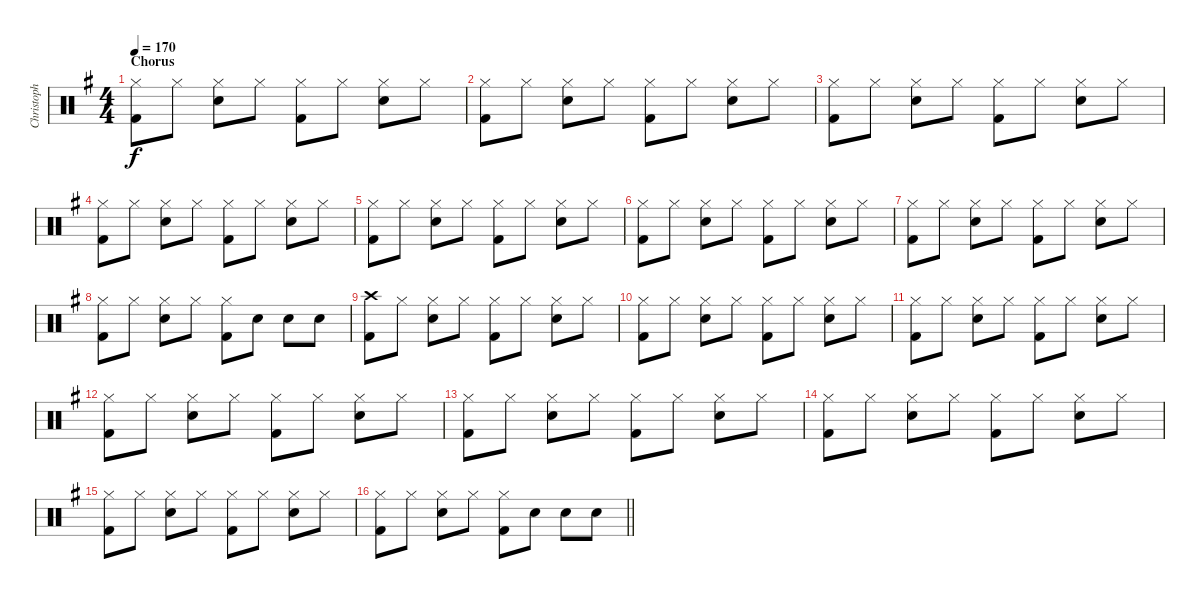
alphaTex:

\track ("Christoph Doom Schneider - Drums" "Christoph ") {instrument percussion}
\staff {score}
\articulation defaults
\ts (4 4)
\section ("" "Chorus")
\tempo 170
\clef neutral
\ks g
("Hi-Hat (closed)" "Kick (hit) 2").8{dy f} "Hi-Hat (closed)".8 ("Hi-Hat (closed)" "Electric Snare (hit)").8 "Hi-Hat (closed)".8 ("Hi-Hat (closed)" "Kick (hit) 2").8 "Hi-Hat (closed)".8 ("Hi-Hat (closed)" "Electric Snare (hit)").8 "Hi-Hat (closed)".8 |
("Hi-Hat (closed)" "Kick (hit) 2").8 "Hi-Hat (closed)".8 ("Hi-Hat (closed)" "Electric Snare (hit)").8 "Hi-Hat (closed)".8 ("Hi-Hat (closed)" "Kick (hit) 2").8 "Hi-Hat (closed)".8 ("Hi-Hat (closed)" "Electric Snare (hit)").8 "Hi-Hat (closed)".8 |
("Hi-Hat (closed)" "Kick (hit) 2").8 "Hi-Hat (closed)".8 ("Hi-Hat (closed)" "Electric Snare (hit)").8 "Hi-Hat (closed)".8 ("Hi-Hat (closed)" "Kick (hit) 2").8 "Hi-Hat (closed)".8 ("Hi-Hat (closed)" "Electric Snare (hit)").8 "Hi-Hat (closed)".8 |
("Hi-Hat (closed)" "Kick (hit) 2").8 "Hi-Hat (closed)".8 ("Hi-Hat (closed)" "Electric Snare (hit)").8 "Hi-Hat (closed)".8 ("Hi-Hat (closed)" "Kick (hit) 2").8 "Hi-Hat (closed)".8 ("Hi-Hat (closed)" "Electric Snare (hit)").8 "Hi-Hat (closed)".8 |
("Hi-Hat (closed)" "Kick (hit) 2").8 "Hi-Hat (closed)".8 ("Hi-Hat (closed)" "Electric Snare (hit)").8 "Hi-Hat (closed)".8 ("Hi-Hat (closed)" "Kick (hit) 2").8 "Hi-Hat (closed)".8 ("Hi-Hat (closed)" "Electric Snare (hit)").8 "Hi-Hat (closed)".8 |
("Hi-Hat (closed)" "Kick (hit) 2").8 "Hi-Hat (closed)".8 ("Hi-Hat (closed)" "Electric Snare (hit)").8 "Hi-Hat (closed)".8 ("Hi-Hat (closed)" "Kick (hit) 2").8 "Hi-Hat (closed)".8 ("Hi-Hat (closed)" "Electric Snare (hit)").8 "Hi-Hat (closed)".8 |
("Hi-Hat (closed)" "Kick (hit) 2").8 "Hi-Hat (closed)".8 ("Hi-Hat (closed)" "Electric Snare (hit)").8 "Hi-Hat (closed)".8 ("Hi-Hat (closed)" "Kick (hit) 2").8 "Hi-Hat (closed)".8 ("Hi-Hat (closed)" "Electric Snare (hit)").8 "Hi-Hat (closed)".8 |
("Hi-Hat (closed)" "Kick (hit) 2").8 "Hi-Hat (closed)".8 ("Hi-Hat (closed)" "Electric Snare (hit)").8 "Hi-Hat (closed)".8 ("Hi-Hat (closed)" "Kick (hit) 2").8 "Electric Snare (hit)".8 "Electric Snare (hit)".8 "Electric Snare (hit)".8 |
("Crash high (hit)" "Kick (hit) 2").8 "Hi-Hat (closed)".8 ("Hi-Hat (closed)" "Electric Snare (hit)").8 "Hi-Hat (closed)".8 ("Hi-Hat (closed)" "Kick (hit) 2").8 "Hi-Hat (closed)".8 ("Hi-Hat (closed)" "Electric Snare (hit)").8 "Hi-Hat (closed)".8 |
("Hi-Hat (closed)" "Kick (hit) 2").8 "Hi-Hat (closed)".8 ("Hi-Hat (closed)" "Electric Snare (hit)").8 "Hi-Hat (closed)".8 ("Hi-Hat (closed)" "Kick (hit) 2").8 "Hi-Hat (closed)".8 ("Hi-Hat (closed)" "Electric Snare (hit)").8 "Hi-Hat (closed)".8 |
("Hi-Hat (closed)" "Kick (hit) 2").8 "Hi-Hat (closed)".8 ("Hi-Hat (closed)" "Electric Snare (hit)").8 "Hi-Hat (closed)".8 ("Hi-Hat (closed)" "Kick (hit) 2").8 "Hi-Hat (closed)".8 ("Hi-Hat (closed)" "Electric Snare (hit)").8 "Hi-Hat (closed)".8 |
("Hi-Hat (closed)" "Kick (hit) 2").8 "Hi-Hat (closed)".8 ("Hi-Hat (closed)" "Electric Snare (hit)").8 "Hi-Hat (closed)".8 ("Hi-Hat (closed)" "Kick (hit) 2").8 "Hi-Hat (closed)".8 ("Hi-Hat (closed)" "Electric Snare (hit)").8 "Hi-Hat (closed)".8 |
("Hi-Hat (closed)" "Kick (hit) 2").8 "Hi-Hat (closed)".8 ("Hi-Hat (closed)" "Electric Snare (hit)").8 "Hi-Hat (closed)".8 ("Hi-Hat (closed)" "Kick (hit) 2").8 "Hi-Hat (closed)".8 ("Hi-Hat (closed)" "Electric Snare (hit)").8 "Hi-Hat (closed)".8 |
("Hi-Hat (closed)" "Kick (hit) 2").8 "Hi-Hat (closed)".8 ("Hi-Hat (closed)" "Electric Snare (hit)").8 "Hi-Hat (closed)".8 ("Hi-Hat (closed)" "Kick (hit) 2").8 "Hi-Hat (closed)".8 ("Hi-Hat (closed)" "Electric Snare (hit)").8 "Hi-Hat (closed)".8 |
("Hi-Hat (closed)" "Kick (hit) 2").8 "Hi-Hat (closed)".8 ("Hi-Hat (closed)" "Electric Snare (hit)").8 "Hi-Hat (closed)".8 ("Hi-Hat (closed)" "Kick (hit) 2").8 "Hi-Hat (closed)".8 ("Hi-Hat (closed)" "Electric Snare (hit)").8 "Hi-Hat (closed)".8 |
\barLineRight lightlight
("Hi-Hat (closed)" "Kick (hit) 2").8 "Hi-Hat (closed)".8 ("Hi-Hat (closed)" "Electric Snare (hit)").8 "Hi-Hat (closed)".8 ("Hi-Hat (closed)" "Kick (hit) 2").8 "Electric Snare (hit)".8 "Electric Snare (hit)".8 "Electric Snare (hit)".8
